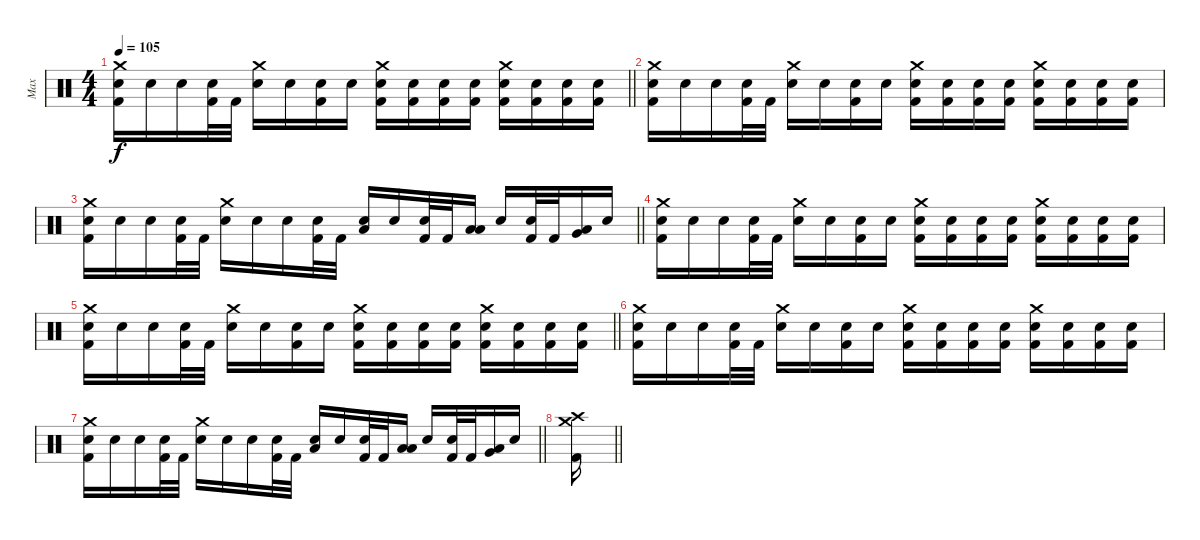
\track ("Max" "Max") {instrument percussion}
\staff {score}
\articulation defaults
\ts (4 4)
\tempo 105
\clef neutral
\barLineRight lightlight
\ks c
("Crash medium (hit)" "Snare (hit)" "Kick (hit) 2").16{dy f} "Snare (hit)".16 "Snare (hit)".16 ("Snare (hit)" "Kick (hit) 2").32 "Kick (hit) 2".32 ("Crash medium (hit)" "Electric Snare (hit)").16 "Snare (hit)".16 ("Snare (hit)" "Kick (hit) 2").16 "Snare (hit)".16 ("Crash medium (hit)" "Snare (hit)" "Kick (hit) 2").16 ("Snare (hit)" "Kick (hit) 2").16 ("Snare (hit)" "Kick (hit) 2").16 ("Snare (hit)" "Kick (hit) 2").16 ("Crash medium (hit)" "Electric Snare (hit)" "Kick (hit) 2").16 ("Snare (hit)" "Kick (hit) 2").16 ("Snare (hit)" "Kick (hit) 2").16 ("Snare (hit)" "Kick (hit) 2").16 |
("Crash medium (hit)" "Snare (hit)" "Kick (hit) 2").16 "Snare (hit)".16 "Snare (hit)".16 ("Snare (hit)" "Kick (hit) 2").32 "Kick (hit) 2".32 ("Crash medium (hit)" "Electric Snare (hit)").16 "Snare (hit)".16 ("Snare (hit)" "Kick (hit) 2").16 "Snare (hit)".16 ("Crash medium (hit)" "Snare (hit)" "Kick (hit) 2").16 ("Snare (hit)" "Kick (hit) 2").16 ("Snare (hit)" "Kick (hit) 2").16 ("Snare (hit)" "Kick (hit) 2").16 ("Crash medium (hit)" "Electric Snare (hit)" "Kick (hit) 2").16 ("Snare (hit)" "Kick (hit) 2").16 ("Snare (hit)" "Kick (hit) 2").16 ("Snare (hit)" "Kick (hit) 2").16 |
\barLineRight lightlight
("Crash medium (hit)" "Snare (hit)" "Kick (hit) 2").16 "Snare (hit)".16 "Snare (hit)".16 ("Snare (hit)" "Kick (hit) 2").32 "Kick (hit) 2".32 ("Crash medium (hit)" "Electric Snare (hit)").16 "Snare (hit)".16 "Snare (hit)".16 ("Snare (hit)" "Kick (hit) 2").32 "Kick (hit) 2".32 ("Low Floor Tom (hit)" "Electric Snare (hit)").16 "Snare (hit)".16 ("Snare (hit)" "Kick (hit) 2").32 "Kick (hit) 2".32 ("Low Floor Tom (hit)" "Low Tom (hit)").16 "Snare (hit)".16 ("Snare (hit)" "Kick (hit) 2").32 "Kick (hit) 2".32 ("Low Floor Tom (hit)" "Very Low Tom (hit)").16 "Snare (hit)".16 |
("Crash medium (hit)" "Snare (hit)" "Kick (hit) 2").16 "Snare (hit)".16 "Snare (hit)".16 ("Snare (hit)" "Kick (hit) 2").32 "Kick (hit) 2".32 ("Crash medium (hit)" "Electric Snare (hit)").16 "Snare (hit)".16 ("Snare (hit)" "Kick (hit) 2").16 "Snare (hit)".16 ("Crash medium (hit)" "Snare (hit)" "Kick (hit) 2").16 ("Snare (hit)" "Kick (hit) 2").16 ("Snare (hit)" "Kick (hit) 2").16 ("Snare (hit)" "Kick (hit) 2").16 ("Crash medium (hit)" "Electric Snare (hit)" "Kick (hit) 2").16 ("Snare (hit)" "Kick (hit) 2").16 ("Snare (hit)" "Kick (hit) 2").16 ("Snare (hit)" "Kick (hit) 2").16 |
\barLineRight lightlight
("Crash medium (hit)" "Snare (hit)" "Kick (hit) 2").16 "Snare (hit)".16 "Snare (hit)".16 ("Snare (hit)" "Kick (hit) 2").32 "Kick (hit) 2".32 ("Crash medium (hit)" "Electric Snare (hit)").16 "Snare (hit)".16 ("Snare (hit)" "Kick (hit) 2").16 "Snare (hit)".16 ("Crash medium (hit)" "Snare (hit)" "Kick (hit) 2").16 ("Snare (hit)" "Kick (hit) 2").16 ("Snare (hit)" "Kick (hit) 2").16 ("Snare (hit)" "Kick (hit) 2").16 ("Crash medium (hit)" "Electric Snare (hit)" "Kick (hit) 2").16 ("Snare (hit)" "Kick (hit) 2").16 ("Snare (hit)" "Kick (hit) 2").16 ("Snare (hit)" "Kick (hit) 2").16 |
("Crash medium (hit)" "Snare (hit)" "Kick (hit) 2").16 "Snare (hit)".16 "Snare (hit)".16 ("Snare (hit)" "Kick (hit) 2").32 "Kick (hit) 2".32 ("Crash medium (hit)" "Electric Snare (hit)").16 "Snare (hit)".16 ("Snare (hit)" "Kick (hit) 2").16 "Snare (hit)".16 ("Crash medium (hit)" "Snare (hit)" "Kick (hit) 2").16 ("Snare (hit)" "Kick (hit) 2").16 ("Snare (hit)" "Kick (hit) 2").16 ("Snare (hit)" "Kick (hit) 2").16 ("Crash medium (hit)" "Electric Snare (hit)" "Kick (hit) 2").16 ("Snare (hit)" "Kick (hit) 2").16 ("Snare (hit)" "Kick (hit) 2").16 ("Snare (hit)" "Kick (hit) 2").16 |
\barLineRight lightlight
("Crash medium (hit)" "Snare (hit)" "Kick (hit) 2").16 "Snare (hit)".16 "Snare (hit)".16 ("Snare (hit)" "Kick (hit) 2").32 "Kick (hit) 2".32 ("Crash medium (hit)" "Electric Snare (hit)").16 "Snare (hit)".16 "Snare (hit)".16 ("Snare (hit)" "Kick (hit) 2").32 "Kick (hit) 2".32 ("Low Floor Tom (hit)" "Electric Snare (hit)").16 "Snare (hit)".16 ("Snare (hit)" "Kick (hit) 2").32 "Kick (hit) 2".32 ("Low Floor Tom (hit)" "Low Tom (hit)").16 "Snare (hit)".16 ("Snare (hit)" "Kick (hit) 2").32 "Kick (hit) 2".32 ("Low Floor Tom (hit)" "Very Low Tom (hit)").16 "Snare (hit)".16 |
\barLineRight lightlight
("Crash high (hit)" "Crash medium (hit)" "Kick (hit) 2").16
